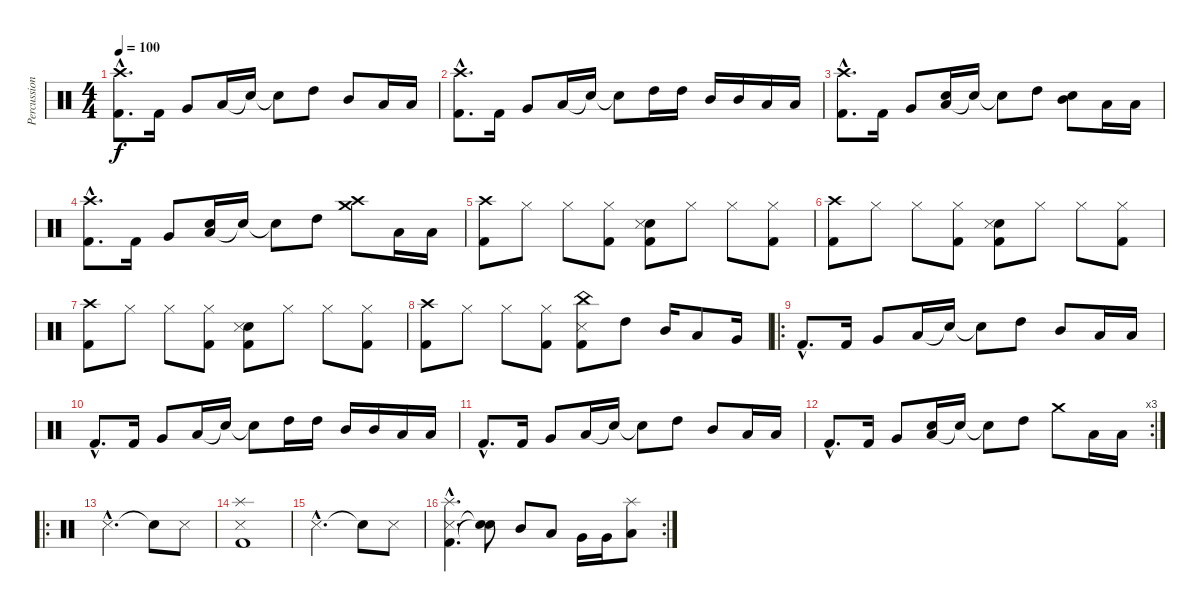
\track ("Percussion" "Percussion") {instrument percussion}
\staff {score}
\articulation defaults
\ts (4 4)
\tempo 100
\clef neutral
\ks c
("Kick (hit) 2"{hac} "Crash high (hit)"{hac}).8{d dy f} "Kick (hit) 2".16 "Very Low Tom (hit)".8 "Low Floor Tom (hit)".16 "Snare (hit)"{t}.16 "Snare (hit)"{t}.8 "High Tom (hit)".8 "Mid Tom (hit)".8 "Low Tom (hit)".16 "Low Tom (hit)".16 |
("Kick (hit) 2"{hac} "Crash high (hit)"{hac}).8{d} "Kick (hit) 2".16 "Very Low Tom (hit)".8 "Low Floor Tom (hit)".16 "Snare (hit)"{t}.16 "Snare (hit)"{t}.8 "High Tom (hit)".16 "High Tom (hit)".16 "Mid Tom (hit)".16 "Mid Tom (hit)".16 "Low Tom (hit)".16 "Low Tom (hit)".16 |
("Kick (hit) 2"{hac} "Crash high (hit)"{hac}).8{d} "Kick (hit) 2".16 "Very Low Tom (hit)".8 ("Low Floor Tom (hit)" "Electric Snare (hit)").16 "Snare (hit)"{t}.16 "Snare (hit)"{t}.8 "High Tom (hit)".8 ("Mid Tom (hit)" "Electric Snare (hit)").8 "Low Tom (hit)".16 "Low Tom (hit)".16 |
("Kick (hit) 2"{hac} "Crash high (hit)"{hac}).8{d} "Kick (hit) 2".16 "Very Low Tom (hit)".8 ("Low Floor Tom (hit)" "Electric Snare (hit)").16 "Snare (hit)"{t}.16 "Snare (hit)"{t}.8 "High Tom (hit)".8 ("Crash medium (hit)" "Crash high (hit)").8 "Low Tom (hit)".16 "Low Tom (hit)".16 |
("Crash high (hit)" "Kick (hit) 2").8 "Hi-Hat (closed)".8 "Hi-Hat (closed)".8 ("Hi-Hat (closed)" "Kick (hit) 2").8 ("Electric Snare (hit)" "Snare (side stick) 3" "Kick (hit) 2").8 "Hi-Hat (closed)".8 "Hi-Hat (closed)".8 ("Hi-Hat (closed)" "Kick (hit) 2").8 |
("Crash high (hit)" "Kick (hit) 2").8 "Hi-Hat (closed)".8 "Hi-Hat (closed)".8 ("Hi-Hat (closed)" "Kick (hit) 2").8 ("Electric Snare (hit)" "Snare (side stick) 3" "Kick (hit) 2").8 "Hi-Hat (closed)".8 "Hi-Hat (closed)".8 ("Hi-Hat (closed)" "Kick (hit) 2").8 |
("Crash high (hit)" "Kick (hit) 2").8 "Hi-Hat (closed)".8 "Hi-Hat (closed)".8 ("Hi-Hat (closed)" "Kick (hit) 2").8 ("Electric Snare (hit)" "Snare (side stick) 3" "Kick (hit) 2").8 "Hi-Hat (closed)".8 "Hi-Hat (closed)".8 ("Hi-Hat (closed)" "Kick (hit) 2").8 |
("Crash high (hit)" "Kick (hit) 2").8 "Hi-Hat (closed)".8 "Hi-Hat (closed)".8 ("Hi-Hat (closed)" "Kick (hit) 2").8 ("China (hit)" "Snare (side stick) 3" "Kick (hit) 2").8 "High Tom (hit)".8 "Mid Tom (hit)".16 "Low Tom (hit)".8 "Very Low Tom (hit)".16 |
\ro "Kick (hit) 2"{hac}.8{d} "Kick (hit) 2".16 "Very Low Tom (hit)".8 "Low Floor Tom (hit)".16 "Snare (hit)"{t}.16 "Snare (hit)"{t}.8 "High Tom (hit)".8 "Mid Tom (hit)".8 "Low Tom (hit)".16 "Low Tom (hit)".16
|
"Kick (hit) 2"{hac}.8{d} "Kick (hit) 2".16 "Very Low Tom (hit)".8 "Low Floor Tom (hit)".16 "Snare (hit)"{t}.16 "Snare (hit)"{t}.8 "High Tom (hit)".16 "High Tom (hit)".16 "Mid Tom (hit)".16 "Mid Tom (hit)".16 "Low Tom (hit)".16 "Low Tom (hit)".16 |
"Kick (hit) 2"{hac}.8{d} "Kick (hit) 2".16 "Very Low Tom (hit)".8 "Low Floor Tom (hit)".16 "Snare (hit)"{t}.16 "Snare (hit)"{t}.8 "High Tom (hit)".8 "Mid Tom (hit)".8 "Low Tom (hit)".16 "Low Tom (hit)".16 |
\rc 3 "Kick (hit) 2"{hac}.8{d} "Kick (hit) 2".16 "Very Low Tom (hit)".8
("Low Floor Tom (hit)" "Electric Snare (hit)").16 "Snare (hit)"{t}.16 "Snare (hit)"{t}.8 "High Tom (hit)".8 "Crash medium (hit)".8 "Low Tom (hit)".16 "Low Tom (hit)".16 |
\ro "Snare (side stick) 3"{hac}.2{d} "Snare (hit)"{t}.8 "Snare (side stick) 3".8
|
("Snare (side stick) 3" "Kick (hit) 2" "Splash (hit)").1 |
"Snare (side stick) 3"{hac}.2{d} "Snare (hit)"{t}.8 "Snare (side stick) 3".8 |
\rc 2
("Snare (side stick) 3"{hac} "Kick (hit) 2"{hac} "Splash (hit)"{hac}).4{d} ("Snare (hit)"{t} "Snare (hit)"{t}).8 "Mid Tom (hit)".8 "Low Tom (hit)".8 "Very Low Tom (hit)".16 "Very Low Tom (hit)".16 ("Splash (hit)" "Low Floor Tom (hit)").8
